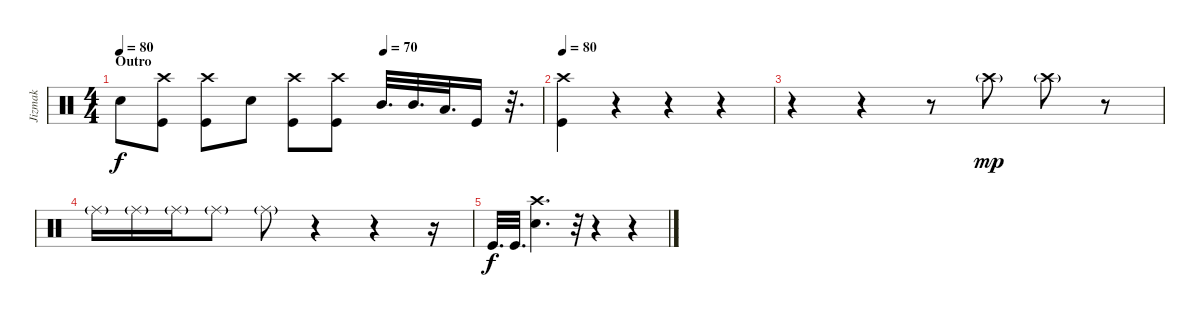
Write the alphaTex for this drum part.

\track ("Jizmak" "Jizmak") {instrument percussion}
\staff {score}
\articulation defaults
\ts (4 4)
\section ("" "Outro")
\tempo 80
\tempo (70 0.625)
\clef neutral
\ks c "Snare (hit) 2".8{dy f}
("Crash high (hit)" "Kick (hit)").8 ("Crash high (hit)" "Kick (hit)").8 "Snare (hit) 2".8 ("Crash high (hit)" "Kick (hit)").8 ("Crash high (hit)" "Kick (hit)").8 "Mid Tom (hit)".32{d} "Mid Tom (hit)".32{d} "Low Tom (hit)".32{d} "Kick (hit)".16 r.32{d} |
\tempo 80
("Crash high (hit)" "Kick (hit)").4 r.4 r.4 r.4 |
r.4 r.4 r.8 "Crash high (hit)"{g}.8{dy mp} "Crash high (hit)"{g}.8 r.8 |
"Ride (middle)"{g}.16 "Ride (middle)"{g}.16 "Ride (middle)"{g}.16 "Ride (middle)"{g}.8 "Ride (middle)"{g}.8 r.4 r.4 r.16 |
"Kick (hit)".32{d dy f} "Kick (hit)".32{d} ("Crash high (hit)" "Snare (hit) 2").4{d} r.32 r.4 r.4
